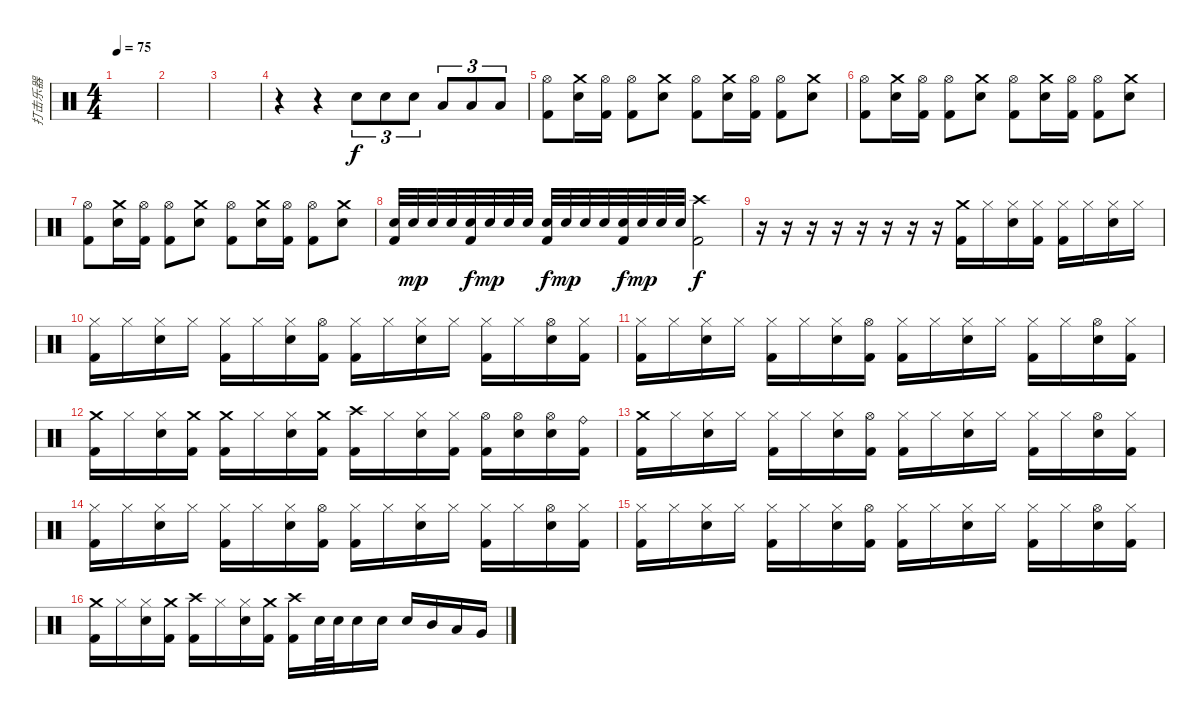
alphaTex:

\track ("打击乐器" "打击乐器") {instrument percussion}
\staff {score}
\articulation defaults
\ts (4 4)
\tempo 75
\clef neutral
\ks c
|
|
|
r.4 r.4 "Electric Snare (hit)".8{tu (3 2)} "Electric Snare (hit)".8{tu (3 2)} "Electric Snare (hit)".8{tu (3 2)} "Low Tom (hit)".8{tu (3 2)} "Low Tom (hit)".8{tu (3 2)} "Low Tom (hit)".8{tu (3 2)} |
("Hi-Hat (open)" "Kick (hit) 2").8 ("Crash medium (hit)" "Electric Snare (hit)").16 ("Hi-Hat (open)" "Kick (hit) 2").16 ("Hi-Hat (open)" "Kick (hit) 2").8 ("Crash medium (hit)" "Electric Snare (hit)").8 ("Hi-Hat (open)" "Kick (hit) 2").8 ("Crash medium (hit)" "Electric Snare (hit)").16 ("Hi-Hat (open)" "Kick (hit) 2").16 ("Hi-Hat (open)" "Kick (hit) 2").8 ("Crash medium (hit)" "Electric Snare (hit)").8 |
("Hi-Hat (open)" "Kick (hit) 2").8 ("Crash medium (hit)" "Electric Snare (hit)").16 ("Hi-Hat (open)" "Kick (hit) 2").16 ("Hi-Hat (open)" "Kick (hit) 2").8 ("Crash medium (hit)" "Electric Snare (hit)").8 ("Hi-Hat (open)" "Kick (hit) 2").8 ("Crash medium (hit)" "Electric Snare (hit)").16 ("Hi-Hat (open)" "Kick (hit) 2").16 ("Hi-Hat (open)" "Kick (hit) 2").8 ("Crash medium (hit)" "Electric Snare (hit)").8 |
("Hi-Hat (open)" "Kick (hit) 2").8 ("Crash medium (hit)" "Electric Snare (hit)").16 ("Hi-Hat (open)" "Kick (hit) 2").16 ("Hi-Hat (open)" "Kick (hit) 2").8 ("Crash medium (hit)" "Electric Snare (hit)").8 ("Hi-Hat (open)" "Kick (hit) 2").8 ("Crash medium (hit)" "Electric Snare (hit)").16 ("Hi-Hat (open)" "Kick (hit) 2").16 ("Hi-Hat (open)" "Kick (hit) 2").8 ("Crash medium (hit)" "Electric Snare (hit)").8 |
("Electric Snare (hit)" "Kick (hit) 2").32 "Electric Snare (hit)".32{dy mp} "Electric Snare (hit)".32 "Electric Snare (hit)".32 ("Electric Snare (hit)" "Kick (hit) 2").32{dy f} "Electric Snare (hit)".32{dy mp} "Electric Snare (hit)".32 "Electric Snare (hit)".32 ("Electric Snare (hit)" "Kick (hit) 2").32{dy f} "Electric Snare (hit)".32{dy mp} "Electric Snare (hit)".32 "Electric Snare (hit)".32 ("Electric Snare (hit)" "Kick (hit) 2").32{dy f} "Electric Snare (hit)".32{dy mp} "Electric Snare (hit)".32 "Electric Snare (hit)".32 ("Crash high (hit)" "Kick (hit) 2").2{dy f} |
r.16 r.16 r.16 r.16 r.16 r.16 r.16 r.16 ("Crash medium (hit)" "Kick (hit) 2").16 "Hi-Hat (closed)".16 ("Hi-Hat (closed)" "Electric Snare (hit)").16 ("Hi-Hat (closed)" "Kick (hit) 2").16 ("Hi-Hat (closed)" "Kick (hit) 2").16 "Hi-Hat (closed)".16 ("Hi-Hat (closed)" "Electric Snare (hit)").16 "Hi-Hat (closed)".16 |
("Hi-Hat (closed)" "Kick (hit) 2").16 "Hi-Hat (closed)".16 ("Hi-Hat (closed)" "Electric Snare (hit)").16 "Hi-Hat (closed)".16 ("Hi-Hat (closed)" "Kick (hit) 2").16 "Hi-Hat (closed)".16 ("Hi-Hat (closed)" "Electric Snare (hit)").16 ("Hi-Hat (open)" "Kick (hit) 2").16 ("Hi-Hat (closed)" "Kick (hit) 2").16 "Hi-Hat (closed)".16 ("Hi-Hat (closed)" "Electric Snare (hit)").16 "Hi-Hat (closed)".16 ("Hi-Hat (closed)" "Kick (hit) 2").16 "Hi-Hat (closed)".16 ("Hi-Hat (open)" "Electric Snare (hit)").16 ("Hi-Hat (closed)" "Kick (hit) 2").16 |
("Hi-Hat (closed)" "Kick (hit) 2").16 "Hi-Hat (closed)".16 ("Hi-Hat (closed)" "Electric Snare (hit)").16 "Hi-Hat (closed)".16 ("Hi-Hat (closed)" "Kick (hit) 2").16 "Hi-Hat (closed)".16 ("Hi-Hat (closed)" "Electric Snare (hit)").16 ("Hi-Hat (open)" "Kick (hit) 2").16 ("Hi-Hat (closed)" "Kick (hit) 2").16 "Hi-Hat (closed)".16 ("Hi-Hat (closed)" "Electric Snare (hit)").16 "Hi-Hat (closed)".16 ("Hi-Hat (closed)" "Kick (hit) 2").16 "Hi-Hat (closed)".16 ("Hi-Hat (open)" "Electric Snare (hit)").16 ("Hi-Hat (closed)" "Kick (hit) 2").16 |
("Crash medium (hit)" "Kick (hit) 2").16 "Hi-Hat (closed)".16 ("Hi-Hat (closed)" "Electric Snare (hit)").16 ("Crash medium (hit)" "Kick (hit) 2").16 ("Crash medium (hit)" "Kick (hit) 2").16 "Hi-Hat (closed)".16 ("Hi-Hat (closed)" "Electric Snare (hit)").16 ("Crash medium (hit)" "Kick (hit) 2").16 ("Crash high (hit)" "Kick (hit) 2").16 "Hi-Hat (closed)".16 ("Hi-Hat (closed)" "Electric Snare (hit)").16 ("Hi-Hat (closed)" "Kick (hit) 2").16 ("Hi-Hat (open)" "Kick (hit) 2").16 ("Hi-Hat (open)" "Electric Snare (hit)").16 ("Hi-Hat (open)" "Electric Snare (hit)").16 ("Ride (bell)" "Kick (hit) 2").16 |
("Crash medium (hit)" "Kick (hit) 2").16 "Hi-Hat (closed)".16 ("Hi-Hat (closed)" "Electric Snare (hit)").16 "Hi-Hat (closed)".16 ("Hi-Hat (closed)" "Kick (hit) 2").16 "Hi-Hat (closed)".16 ("Hi-Hat (closed)" "Electric Snare (hit)").16 ("Hi-Hat (open)" "Kick (hit) 2").16 ("Hi-Hat (closed)" "Kick (hit) 2").16 "Hi-Hat (closed)".16 ("Hi-Hat (closed)" "Electric Snare (hit)").16 "Hi-Hat (closed)".16 ("Hi-Hat (closed)" "Kick (hit) 2").16 "Hi-Hat (closed)".16 ("Hi-Hat (open)" "Electric Snare (hit)").16 ("Hi-Hat (closed)" "Kick (hit) 2").16 |
("Hi-Hat (closed)" "Kick (hit) 2").16 "Hi-Hat (closed)".16 ("Hi-Hat (closed)" "Electric Snare (hit)").16 "Hi-Hat (closed)".16 ("Hi-Hat (closed)" "Kick (hit) 2").16 "Hi-Hat (closed)".16 ("Hi-Hat (closed)" "Electric Snare (hit)").16 ("Hi-Hat (open)" "Kick (hit) 2").16 ("Hi-Hat (closed)" "Kick (hit) 2").16 "Hi-Hat (closed)".16 ("Hi-Hat (closed)" "Electric Snare (hit)").16 "Hi-Hat (closed)".16 ("Hi-Hat (closed)" "Kick (hit) 2").16 "Hi-Hat (closed)".16 ("Hi-Hat (open)" "Electric Snare (hit)").16 ("Hi-Hat (closed)" "Kick (hit) 2").16 |
("Hi-Hat (closed)" "Kick (hit) 2").16 "Hi-Hat (closed)".16 ("Hi-Hat (closed)" "Electric Snare (hit)").16 "Hi-Hat (closed)".16 ("Hi-Hat (closed)" "Kick (hit) 2").16 "Hi-Hat (closed)".16 ("Hi-Hat (closed)" "Electric Snare (hit)").16 ("Hi-Hat (open)" "Kick (hit) 2").16 ("Hi-Hat (closed)" "Kick (hit) 2").16 "Hi-Hat (closed)".16 ("Hi-Hat (closed)" "Electric Snare (hit)").16 "Hi-Hat (closed)".16 ("Hi-Hat (closed)" "Kick (hit) 2").16 "Hi-Hat (closed)".16 ("Hi-Hat (open)" "Electric Snare (hit)").16 ("Hi-Hat (closed)" "Kick (hit) 2").16 |
("Crash medium (hit)" "Kick (hit) 2").16 "Hi-Hat (closed)".16 ("Hi-Hat (closed)" "Electric Snare (hit)").16 ("Crash medium (hit)" "Kick (hit) 2").16 ("Crash high (hit)" "Kick (hit) 2").16 "Hi-Hat (closed)".16 ("Hi-Hat (closed)" "Electric Snare (hit)").16 ("Crash medium (hit)" "Kick (hit) 2").16 ("Crash high (hit)" "Kick (hit) 2").16 "Electric Snare (hit)".32 "Electric Snare (hit)".32 "Electric Snare (hit)".16 "Electric Snare (hit)".16 "Electric Snare (hit)".16 "Mid Tom (hit)".16 "Low Tom (hit)".16 "Very Low Tom (hit)".16
